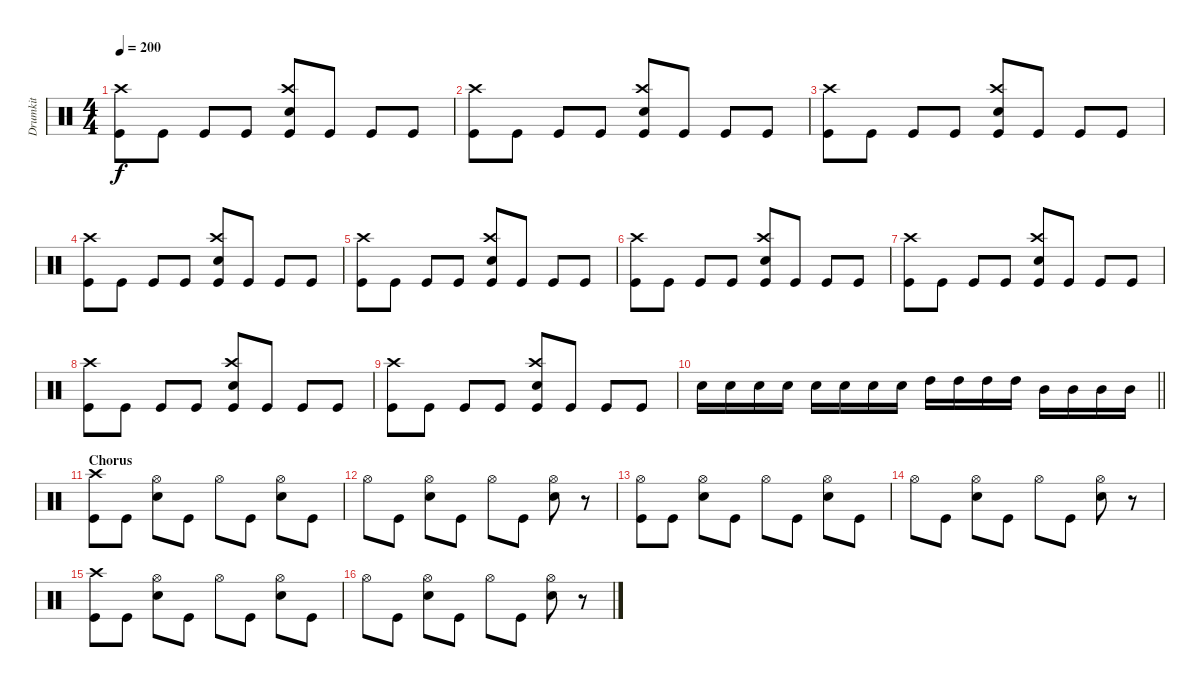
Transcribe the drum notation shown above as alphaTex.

\track ("Drumkit" "Drumkit") {instrument percussion}
\staff {score}
\articulation defaults
\ts (4 4)
\tempo 200
\clef neutral
\ks c
("Kick (hit)" "Crash high (hit)").8{dy f} "Kick (hit)".8 "Kick (hit)".8 "Kick (hit)".8 ("Kick (hit)" "Snare (hit) 2" "Crash high (hit)").8 "Kick (hit)".8 "Kick (hit)".8 "Kick (hit)".8 |
("Kick (hit)" "Crash high (hit)").8 "Kick (hit)".8 "Kick (hit)".8 "Kick (hit)".8 ("Kick (hit)" "Snare (hit) 2" "Crash high (hit)").8 "Kick (hit)".8 "Kick (hit)".8 "Kick (hit)".8 |
("Kick (hit)" "Crash high (hit)").8 "Kick (hit)".8 "Kick (hit)".8 "Kick (hit)".8 ("Kick (hit)" "Snare (hit) 2" "Crash high (hit)").8 "Kick (hit)".8 "Kick (hit)".8 "Kick (hit)".8 |
("Kick (hit)" "Crash high (hit)").8 "Kick (hit)".8 "Kick (hit)".8 "Kick (hit)".8 ("Kick (hit)" "Snare (hit) 2" "Crash high (hit)").8 "Kick (hit)".8 "Kick (hit)".8 "Kick (hit)".8 |
("Kick (hit)" "Crash high (hit)").8 "Kick (hit)".8 "Kick (hit)".8 "Kick (hit)".8 ("Kick (hit)" "Snare (hit) 2" "Crash high (hit)").8 "Kick (hit)".8 "Kick (hit)".8 "Kick (hit)".8 |
("Kick (hit)" "Crash high (hit)").8 "Kick (hit)".8 "Kick (hit)".8 "Kick (hit)".8 ("Kick (hit)" "Snare (hit) 2" "Crash high (hit)").8 "Kick (hit)".8 "Kick (hit)".8 "Kick (hit)".8 |
("Kick (hit)" "Crash high (hit)").8 "Kick (hit)".8 "Kick (hit)".8 "Kick (hit)".8 ("Kick (hit)" "Snare (hit) 2" "Crash high (hit)").8 "Kick (hit)".8 "Kick (hit)".8 "Kick (hit)".8 |
("Kick (hit)" "Crash high (hit)").8 "Kick (hit)".8 "Kick (hit)".8 "Kick (hit)".8 ("Kick (hit)" "Snare (hit) 2" "Crash high (hit)").8 "Kick (hit)".8 "Kick (hit)".8 "Kick (hit)".8 |
("Kick (hit)" "Crash high (hit)").8 "Kick (hit)".8 "Kick (hit)".8 "Kick (hit)".8 ("Kick (hit)" "Snare (hit) 2" "Crash high (hit)").8 "Kick (hit)".8 "Kick (hit)".8 "Kick (hit)".8 |
\barLineRight lightlight "Snare (hit) 2".16 "Snare (hit) 2".16 "Snare (hit) 2".16 "Snare (hit) 2".16 "Snare (hit) 2".16 "Snare (hit) 2".16 "Snare (hit) 2".16 "Snare (hit) 2".16 "High Tom (hit)".16 "High Tom (hit)".16 "High Tom (hit)".16 "High Tom (hit)".16 "Mid Tom (hit)".16 "Mid Tom (hit)".16 "Mid Tom (hit)".16 "Mid Tom (hit)".16
|
\section ("" "Chorus")
("Crash high (hit)" "Kick (hit)").8 "Kick (hit)".8 ("Hi-Hat (open)" "Snare (hit) 2").8 "Kick (hit)".8 "Hi-Hat (open)".8 "Kick (hit)".8 ("Snare (hit) 2" "Hi-Hat (open)").8 "Kick (hit)".8 |
"Hi-Hat (open)".8 "Kick (hit)".8 ("Hi-Hat (open)" "Snare (hit) 2").8 "Kick (hit)".8 "Hi-Hat (open)".8 "Kick (hit)".8 ("Snare (hit) 2" "Hi-Hat (open)").8 r.8 |
("Hi-Hat (open)" "Kick (hit)").8 "Kick (hit)".8 ("Hi-Hat (open)" "Snare (hit) 2").8 "Kick (hit)".8 "Hi-Hat (open)".8 "Kick (hit)".8 ("Snare (hit) 2" "Hi-Hat (open)").8 "Kick (hit)".8 |
"Hi-Hat (open)".8 "Kick (hit)".8 ("Hi-Hat (open)" "Snare (hit) 2").8 "Kick (hit)".8 "Hi-Hat (open)".8 "Kick (hit)".8 ("Snare (hit) 2" "Hi-Hat (open)").8 r.8 |
("Crash high (hit)" "Kick (hit)").8 "Kick (hit)".8 ("Hi-Hat (open)" "Snare (hit) 2").8 "Kick (hit)".8 "Hi-Hat (open)".8 "Kick (hit)".8 ("Snare (hit) 2" "Hi-Hat (open)").8 "Kick (hit)".8 |
"Hi-Hat (open)".8 "Kick (hit)".8 ("Hi-Hat (open)" "Snare (hit) 2").8 "Kick (hit)".8 "Hi-Hat (open)".8 "Kick (hit)".8 ("Snare (hit) 2" "Hi-Hat (open)").8 r.8
